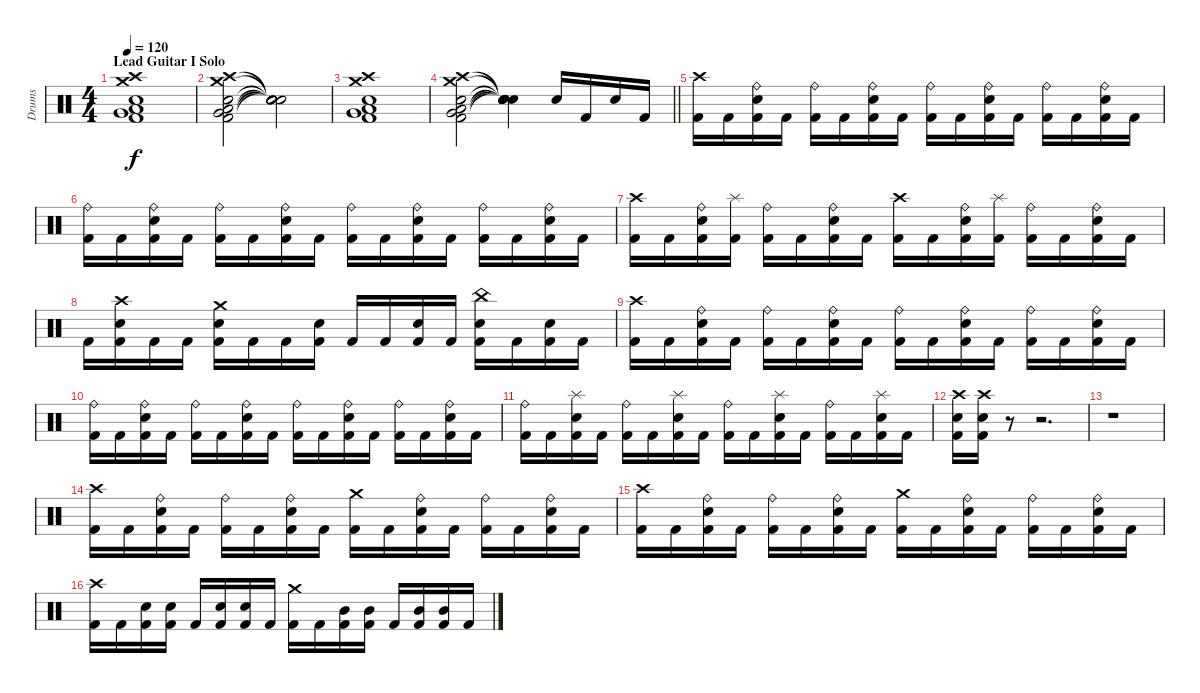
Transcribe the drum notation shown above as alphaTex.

\track ("Drums" "Drums") {instrument percussion}
\staff {score}
\articulation defaults
\ts (4 4)
\section ("" "Lead Guitar I Solo")
\tempo 120
\clef neutral
\ks c
("Crash high (hit)" "Crash medium (hit)" "Kick (hit) 2" "Low Floor Tom (hit)" "Very Low Tom (hit)" "Snare (hit) 2").1{dy f} |
("Crash high (hit)" "Crash medium (hit)" "Kick (hit) 2" "Low Floor Tom (hit)" "Very Low Tom (hit)" "Snare (hit) 2").2 ("Snare (hit)"{t} "Snare (hit)"{t} "Snare (hit)"{t} "Snare (hit)"{t} "Snare (hit)"{t} "Snare (hit)"{t}).2 |
("Crash high (hit)" "Crash medium (hit)" "Kick (hit) 2" "Low Floor Tom (hit)" "Very Low Tom (hit)" "Snare (hit) 2").1 |
\barLineRight lightlight
("Crash high (hit)" "Crash medium (hit)" "Kick (hit) 2" "Low Floor Tom (hit)" "Very Low Tom (hit)" "Snare (hit) 2").2 ("Snare (hit)"{t} "Snare (hit)"{t} "Snare (hit)"{t} "Snare (hit)"{t} "Snare (hit)"{t} "Snare (hit)"{t}).4 "Snare (hit) 2".16 "Kick (hit) 2".16 "Snare (hit) 2".16 "Kick (hit) 2".16 |
("Crash high (hit)" "Kick (hit) 2").16 "Kick (hit) 2".16 ("Ride (bell)" "Snare (hit) 2" "Kick (hit) 2").16 "Kick (hit) 2".16 ("Ride (bell)" "Kick (hit) 2").16 "Kick (hit) 2".16 ("Ride (bell)" "Snare (hit) 2" "Kick (hit) 2").16 "Kick (hit) 2".16 ("Ride (bell)" "Kick (hit) 2").16 "Kick (hit) 2".16 ("Ride (bell)" "Snare (hit) 2" "Kick (hit) 2").16 "Kick (hit) 2".16 ("Ride (bell)" "Kick (hit) 2").16 "Kick (hit) 2".16 ("Ride (bell)" "Snare (hit) 2" "Kick (hit) 2").16 "Kick (hit) 2".16 |
("Ride (bell)" "Kick (hit) 2").16 "Kick (hit) 2".16 ("Ride (bell)" "Snare (hit) 2" "Kick (hit) 2").16 "Kick (hit) 2".16 ("Ride (bell)" "Kick (hit) 2").16 "Kick (hit) 2".16 ("Ride (bell)" "Snare (hit) 2" "Kick (hit) 2").16 "Kick (hit) 2".16 ("Ride (bell)" "Kick (hit) 2").16 "Kick (hit) 2".16 ("Ride (bell)" "Snare (hit) 2" "Kick (hit) 2").16 "Kick (hit) 2".16 ("Ride (bell)" "Kick (hit) 2").16 "Kick (hit) 2".16 ("Ride (bell)" "Snare (hit) 2" "Kick (hit) 2").16 "Kick (hit) 2".16 |
("Crash high (hit)" "Kick (hit) 2").16 "Kick (hit) 2".16 ("Ride (bell)" "Snare (hit) 2" "Kick (hit) 2").16 ("Splash (hit)" "Kick (hit) 2").16 ("Ride (bell)" "Kick (hit) 2").16 "Kick (hit) 2".16 ("Ride (bell)" "Snare (hit) 2" "Kick (hit) 2").16 "Kick (hit) 2".16 ("Crash high (hit)" "Kick (hit) 2").16 "Kick (hit) 2".16 ("Ride (bell)" "Snare (hit) 2" "Kick (hit) 2").16 ("Splash (hit)" "Kick (hit) 2").16 ("Ride (bell)" "Kick (hit) 2").16 "Kick (hit) 2".16 ("Ride (bell)" "Snare (hit) 2" "Kick (hit) 2").16 "Kick (hit) 2".16 |
"Kick (hit) 2".16 ("Crash high (hit)" "Snare (hit) 2" "Kick (hit) 2").16 "Kick (hit) 2".16 "Kick (hit) 2".16 ("Crash medium (hit)" "Snare (hit) 2" "Kick (hit) 2").16 "Kick (hit) 2".16 "Kick (hit) 2".16 ("Snare (hit) 2" "Kick (hit) 2").16 "Kick (hit) 2".16 "Kick (hit) 2".16 ("Snare (hit) 2" "Kick (hit) 2").16 "Kick (hit) 2".16 ("China (hit)" "Snare (hit) 2" "Kick (hit) 2").16 "Kick (hit) 2".16 ("Snare (hit) 2" "Kick (hit) 2").16 "Kick (hit) 2".16 |
("Crash high (hit)" "Kick (hit) 2").16 "Kick (hit) 2".16 ("Ride (bell)" "Snare (hit) 2" "Kick (hit) 2").16 "Kick (hit) 2".16 ("Ride (bell)" "Kick (hit) 2").16 "Kick (hit) 2".16 ("Ride (bell)" "Snare (hit) 2" "Kick (hit) 2").16 "Kick (hit) 2".16 ("Ride (bell)" "Kick (hit) 2").16 "Kick (hit) 2".16 ("Ride (bell)" "Snare (hit) 2" "Kick (hit) 2").16 "Kick (hit) 2".16 ("Ride (bell)" "Kick (hit) 2").16 "Kick (hit) 2".16 ("Ride (bell)" "Snare (hit) 2" "Kick (hit) 2").16 "Kick (hit) 2".16 |
("Ride (bell)" "Kick (hit) 2").16 "Kick (hit) 2".16 ("Ride (bell)" "Snare (hit) 2" "Kick (hit) 2").16 "Kick (hit) 2".16 ("Ride (bell)" "Kick (hit) 2").16 "Kick (hit) 2".16 ("Ride (bell)" "Snare (hit) 2" "Kick (hit) 2").16 "Kick (hit) 2".16 ("Ride (bell)" "Kick (hit) 2").16 "Kick (hit) 2".16 ("Ride (bell)" "Snare (hit) 2" "Kick (hit) 2").16 "Kick (hit) 2".16 ("Ride (bell)" "Kick (hit) 2").16 "Kick (hit) 2".16 ("Ride (bell)" "Snare (hit) 2" "Kick (hit) 2").16 "Kick (hit) 2".16 |
("Ride (bell)" "Kick (hit) 2").16 "Kick (hit) 2".16 ("Splash (hit)" "Snare (hit) 2" "Kick (hit) 2").16 "Kick (hit) 2".16 ("Ride (bell)" "Kick (hit) 2").16 "Kick (hit) 2".16 ("Splash (hit)" "Snare (hit) 2" "Kick (hit) 2").16 "Kick (hit) 2".16 ("Ride (bell)" "Kick (hit) 2").16 "Kick (hit) 2".16 ("Splash (hit)" "Snare (hit) 2" "Kick (hit) 2").16 "Kick (hit) 2".16 ("Ride (bell)" "Kick (hit) 2").16 "Kick (hit) 2".16 ("Splash (hit)" "Snare (hit) 2" "Kick (hit) 2").16 "Kick (hit) 2".16 |
("Crash high (hit)" "Snare (hit) 2" "Kick (hit) 2").16 ("Crash high (hit)" "Snare (hit) 2" "Kick (hit) 2").16 r.8 r.2{d} |
r.1 |
("Crash high (hit)" "Kick (hit) 2").16 "Kick (hit) 2".16 ("Ride (bell)" "Snare (hit) 2" "Kick (hit) 2").16 "Kick (hit) 2".16 ("Ride (bell)" "Kick (hit) 2").16 "Kick (hit) 2".16 ("Ride (bell)" "Snare (hit) 2" "Kick (hit) 2").16 "Kick (hit) 2".16 ("Crash medium (hit)" "Kick (hit) 2").16 "Kick (hit) 2".16 ("Ride (bell)" "Snare (hit) 2" "Kick (hit) 2").16 "Kick (hit) 2".16 ("Ride (bell)" "Kick (hit) 2").16 "Kick (hit) 2".16 ("Ride (bell)" "Snare (hit) 2" "Kick (hit) 2").16 "Kick (hit) 2".16 |
("Crash high (hit)" "Kick (hit) 2").16 "Kick (hit) 2".16 ("Ride (bell)" "Snare (hit) 2" "Kick (hit) 2").16 "Kick (hit) 2".16 ("Ride (bell)" "Kick (hit) 2").16 "Kick (hit) 2".16 ("Ride (bell)" "Snare (hit) 2" "Kick (hit) 2").16 "Kick (hit) 2".16 ("Crash medium (hit)" "Kick (hit) 2").16 "Kick (hit) 2".16 ("Ride (bell)" "Snare (hit) 2" "Kick (hit) 2").16 "Kick (hit) 2".16 ("Ride (bell)" "Kick (hit) 2").16 "Kick (hit) 2".16 ("Ride (bell)" "Snare (hit) 2" "Kick (hit) 2").16 "Kick (hit) 2".16 |
("Crash high (hit)" "Kick (hit) 2").16 "Kick (hit) 2".16 ("Snare (hit) 2" "Kick (hit) 2").16 ("Snare (hit) 2" "Kick (hit) 2").16 "Kick (hit) 2".16 ("Snare (hit) 2" "Kick (hit) 2").16 ("Snare (hit) 2" "Kick (hit) 2").16 "Kick (hit) 2".16 ("Crash medium (hit)" "Kick (hit) 2").16 "Kick (hit) 2".16 ("Mid Tom (hit)" "Kick (hit) 2").16 ("Mid Tom (hit)" "Kick (hit) 2").16 "Kick (hit) 2".16 ("Mid Tom (hit)" "Kick (hit) 2").16 ("Mid Tom (hit)" "Kick (hit) 2").16 "Kick (hit) 2".16
